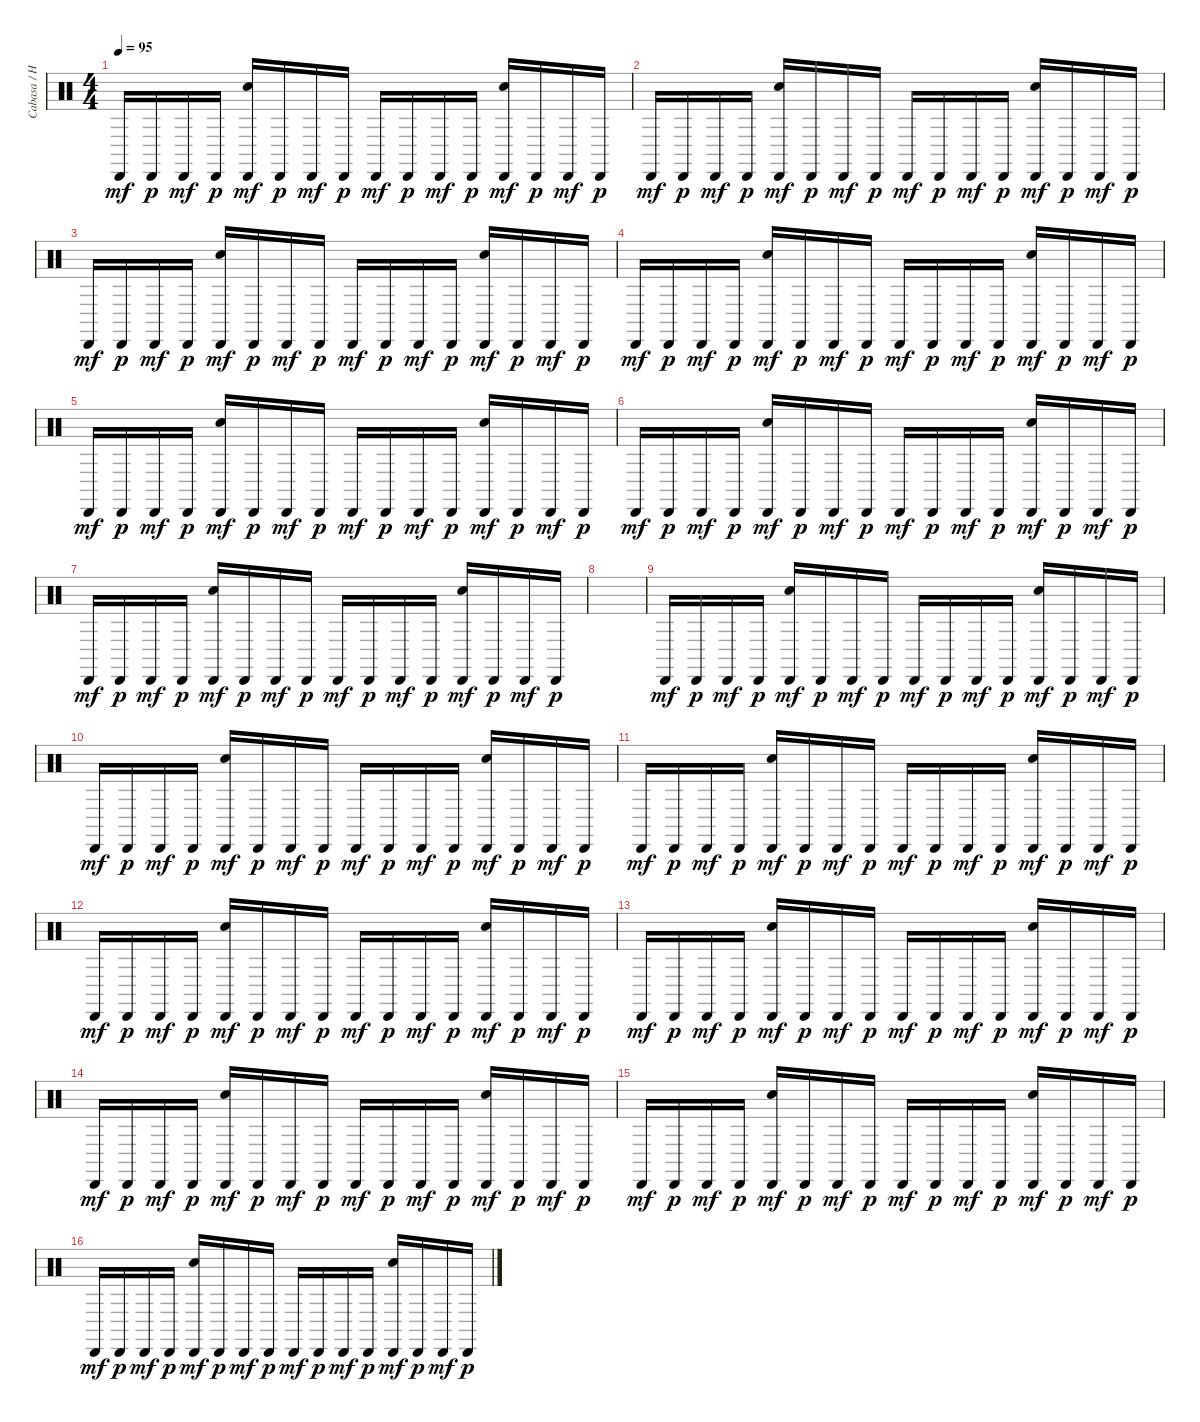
\track ("Cabasa / Hand Clap" "Cabasa / H") {instrument percussion}
\staff {score}
\articulation defaults
\ts (4 4)
\tempo 95
\clef neutral
\ks aminor "Cabasa (hit)".16{dy mf} "Cabasa (hit)".16{dy p} "Cabasa (hit)".16{dy mf} "Cabasa (hit)".16{dy p}
("Hand Clap (hit)" "Cabasa (hit)").16{dy mf} "Cabasa (hit)".16{dy p} "Cabasa (hit)".16{dy mf} "Cabasa (hit)".16{dy p} "Cabasa (hit)".16{dy mf} "Cabasa (hit)".16{dy p} "Cabasa (hit)".16{dy mf} "Cabasa (hit)".16{dy p} ("Hand Clap (hit)" "Cabasa (hit)").16{dy mf} "Cabasa (hit)".16{dy p} "Cabasa (hit)".16{dy mf} "Cabasa (hit)".16{dy p} |
"Cabasa (hit)".16{dy mf} "Cabasa (hit)".16{dy p} "Cabasa (hit)".16{dy mf} "Cabasa (hit)".16{dy p} ("Hand Clap (hit)" "Cabasa (hit)").16{dy mf} "Cabasa (hit)".16{dy p} "Cabasa (hit)".16{dy mf} "Cabasa (hit)".16{dy p} "Cabasa (hit)".16{dy mf} "Cabasa (hit)".16{dy p} "Cabasa (hit)".16{dy mf} "Cabasa (hit)".16{dy p} ("Hand Clap (hit)" "Cabasa (hit)").16{dy mf} "Cabasa (hit)".16{dy p} "Cabasa (hit)".16{dy mf} "Cabasa (hit)".16{dy p} |
"Cabasa (hit)".16{dy mf} "Cabasa (hit)".16{dy p} "Cabasa (hit)".16{dy mf} "Cabasa (hit)".16{dy p} ("Hand Clap (hit)" "Cabasa (hit)").16{dy mf} "Cabasa (hit)".16{dy p} "Cabasa (hit)".16{dy mf} "Cabasa (hit)".16{dy p} "Cabasa (hit)".16{dy mf} "Cabasa (hit)".16{dy p} "Cabasa (hit)".16{dy mf} "Cabasa (hit)".16{dy p} ("Hand Clap (hit)" "Cabasa (hit)").16{dy mf} "Cabasa (hit)".16{dy p} "Cabasa (hit)".16{dy mf} "Cabasa (hit)".16{dy p} |
"Cabasa (hit)".16{dy mf} "Cabasa (hit)".16{dy p} "Cabasa (hit)".16{dy mf} "Cabasa (hit)".16{dy p} ("Hand Clap (hit)" "Cabasa (hit)").16{dy mf} "Cabasa (hit)".16{dy p} "Cabasa (hit)".16{dy mf} "Cabasa (hit)".16{dy p} "Cabasa (hit)".16{dy mf} "Cabasa (hit)".16{dy p} "Cabasa (hit)".16{dy mf} "Cabasa (hit)".16{dy p} ("Hand Clap (hit)" "Cabasa (hit)").16{dy mf} "Cabasa (hit)".16{dy p} "Cabasa (hit)".16{dy mf} "Cabasa (hit)".16{dy p} |
"Cabasa (hit)".16{dy mf} "Cabasa (hit)".16{dy p} "Cabasa (hit)".16{dy mf} "Cabasa (hit)".16{dy p} ("Hand Clap (hit)" "Cabasa (hit)").16{dy mf} "Cabasa (hit)".16{dy p} "Cabasa (hit)".16{dy mf} "Cabasa (hit)".16{dy p} "Cabasa (hit)".16{dy mf} "Cabasa (hit)".16{dy p} "Cabasa (hit)".16{dy mf} "Cabasa (hit)".16{dy p} ("Hand Clap (hit)" "Cabasa (hit)").16{dy mf} "Cabasa (hit)".16{dy p} "Cabasa (hit)".16{dy mf} "Cabasa (hit)".16{dy p} |
"Cabasa (hit)".16{dy mf} "Cabasa (hit)".16{dy p} "Cabasa (hit)".16{dy mf} "Cabasa (hit)".16{dy p} ("Hand Clap (hit)" "Cabasa (hit)").16{dy mf} "Cabasa (hit)".16{dy p} "Cabasa (hit)".16{dy mf} "Cabasa (hit)".16{dy p} "Cabasa (hit)".16{dy mf} "Cabasa (hit)".16{dy p} "Cabasa (hit)".16{dy mf} "Cabasa (hit)".16{dy p} ("Hand Clap (hit)" "Cabasa (hit)").16{dy mf} "Cabasa (hit)".16{dy p} "Cabasa (hit)".16{dy mf} "Cabasa (hit)".16{dy p} |
"Cabasa (hit)".16{dy mf} "Cabasa (hit)".16{dy p} "Cabasa (hit)".16{dy mf} "Cabasa (hit)".16{dy p} ("Hand Clap (hit)" "Cabasa (hit)").16{dy mf} "Cabasa (hit)".16{dy p} "Cabasa (hit)".16{dy mf} "Cabasa (hit)".16{dy p} "Cabasa (hit)".16{dy mf} "Cabasa (hit)".16{dy p} "Cabasa (hit)".16{dy mf} "Cabasa (hit)".16{dy p} ("Hand Clap (hit)" "Cabasa (hit)").16{dy mf} "Cabasa (hit)".16{dy p} "Cabasa (hit)".16{dy mf} "Cabasa (hit)".16{dy p} |
|
"Cabasa (hit)".16{dy mf} "Cabasa (hit)".16{dy p} "Cabasa (hit)".16{dy mf} "Cabasa (hit)".16{dy p} ("Hand Clap (hit)" "Cabasa (hit)").16{dy mf} "Cabasa (hit)".16{dy p} "Cabasa (hit)".16{dy mf} "Cabasa (hit)".16{dy p} "Cabasa (hit)".16{dy mf} "Cabasa (hit)".16{dy p} "Cabasa (hit)".16{dy mf} "Cabasa (hit)".16{dy p} ("Hand Clap (hit)" "Cabasa (hit)").16{dy mf} "Cabasa (hit)".16{dy p} "Cabasa (hit)".16{dy mf} "Cabasa (hit)".16{dy p} |
"Cabasa (hit)".16{dy mf} "Cabasa (hit)".16{dy p} "Cabasa (hit)".16{dy mf} "Cabasa (hit)".16{dy p} ("Hand Clap (hit)" "Cabasa (hit)").16{dy mf} "Cabasa (hit)".16{dy p} "Cabasa (hit)".16{dy mf} "Cabasa (hit)".16{dy p} "Cabasa (hit)".16{dy mf} "Cabasa (hit)".16{dy p} "Cabasa (hit)".16{dy mf} "Cabasa (hit)".16{dy p} ("Hand Clap (hit)" "Cabasa (hit)").16{dy mf} "Cabasa (hit)".16{dy p} "Cabasa (hit)".16{dy mf} "Cabasa (hit)".16{dy p} |
"Cabasa (hit)".16{dy mf} "Cabasa (hit)".16{dy p} "Cabasa (hit)".16{dy mf} "Cabasa (hit)".16{dy p} ("Hand Clap (hit)" "Cabasa (hit)").16{dy mf} "Cabasa (hit)".16{dy p} "Cabasa (hit)".16{dy mf} "Cabasa (hit)".16{dy p} "Cabasa (hit)".16{dy mf} "Cabasa (hit)".16{dy p} "Cabasa (hit)".16{dy mf} "Cabasa (hit)".16{dy p} ("Hand Clap (hit)" "Cabasa (hit)").16{dy mf} "Cabasa (hit)".16{dy p} "Cabasa (hit)".16{dy mf} "Cabasa (hit)".16{dy p} |
"Cabasa (hit)".16{dy mf} "Cabasa (hit)".16{dy p} "Cabasa (hit)".16{dy mf} "Cabasa (hit)".16{dy p} ("Hand Clap (hit)" "Cabasa (hit)").16{dy mf} "Cabasa (hit)".16{dy p} "Cabasa (hit)".16{dy mf} "Cabasa (hit)".16{dy p} "Cabasa (hit)".16{dy mf} "Cabasa (hit)".16{dy p} "Cabasa (hit)".16{dy mf} "Cabasa (hit)".16{dy p} ("Hand Clap (hit)" "Cabasa (hit)").16{dy mf} "Cabasa (hit)".16{dy p} "Cabasa (hit)".16{dy mf} "Cabasa (hit)".16{dy p} |
"Cabasa (hit)".16{dy mf} "Cabasa (hit)".16{dy p} "Cabasa (hit)".16{dy mf} "Cabasa (hit)".16{dy p} ("Hand Clap (hit)" "Cabasa (hit)").16{dy mf} "Cabasa (hit)".16{dy p} "Cabasa (hit)".16{dy mf} "Cabasa (hit)".16{dy p} "Cabasa (hit)".16{dy mf} "Cabasa (hit)".16{dy p} "Cabasa (hit)".16{dy mf} "Cabasa (hit)".16{dy p} ("Hand Clap (hit)" "Cabasa (hit)").16{dy mf} "Cabasa (hit)".16{dy p} "Cabasa (hit)".16{dy mf} "Cabasa (hit)".16{dy p} |
"Cabasa (hit)".16{dy mf} "Cabasa (hit)".16{dy p} "Cabasa (hit)".16{dy mf} "Cabasa (hit)".16{dy p} ("Hand Clap (hit)" "Cabasa (hit)").16{dy mf} "Cabasa (hit)".16{dy p} "Cabasa (hit)".16{dy mf} "Cabasa (hit)".16{dy p} "Cabasa (hit)".16{dy mf} "Cabasa (hit)".16{dy p} "Cabasa (hit)".16{dy mf} "Cabasa (hit)".16{dy p} ("Hand Clap (hit)" "Cabasa (hit)").16{dy mf} "Cabasa (hit)".16{dy p} "Cabasa (hit)".16{dy mf} "Cabasa (hit)".16{dy p} |
"Cabasa (hit)".16{dy mf} "Cabasa (hit)".16{dy p} "Cabasa (hit)".16{dy mf} "Cabasa (hit)".16{dy p} ("Hand Clap (hit)" "Cabasa (hit)").16{dy mf} "Cabasa (hit)".16{dy p} "Cabasa (hit)".16{dy mf} "Cabasa (hit)".16{dy p} "Cabasa (hit)".16{dy mf} "Cabasa (hit)".16{dy p} "Cabasa (hit)".16{dy mf} "Cabasa (hit)".16{dy p} ("Hand Clap (hit)" "Cabasa (hit)").16{dy mf} "Cabasa (hit)".16{dy p} "Cabasa (hit)".16{dy mf} "Cabasa (hit)".16{dy p} |
"Cabasa (hit)".16{dy mf} "Cabasa (hit)".16{dy p} "Cabasa (hit)".16{dy mf} "Cabasa (hit)".16{dy p} ("Hand Clap (hit)" "Cabasa (hit)").16{dy mf} "Cabasa (hit)".16{dy p} "Cabasa (hit)".16{dy mf} "Cabasa (hit)".16{dy p} "Cabasa (hit)".16{dy mf} "Cabasa (hit)".16{dy p} "Cabasa (hit)".16{dy mf} "Cabasa (hit)".16{dy p} ("Hand Clap (hit)" "Cabasa (hit)").16{dy mf} "Cabasa (hit)".16{dy p} "Cabasa (hit)".16{dy mf} "Cabasa (hit)".16{dy p}
